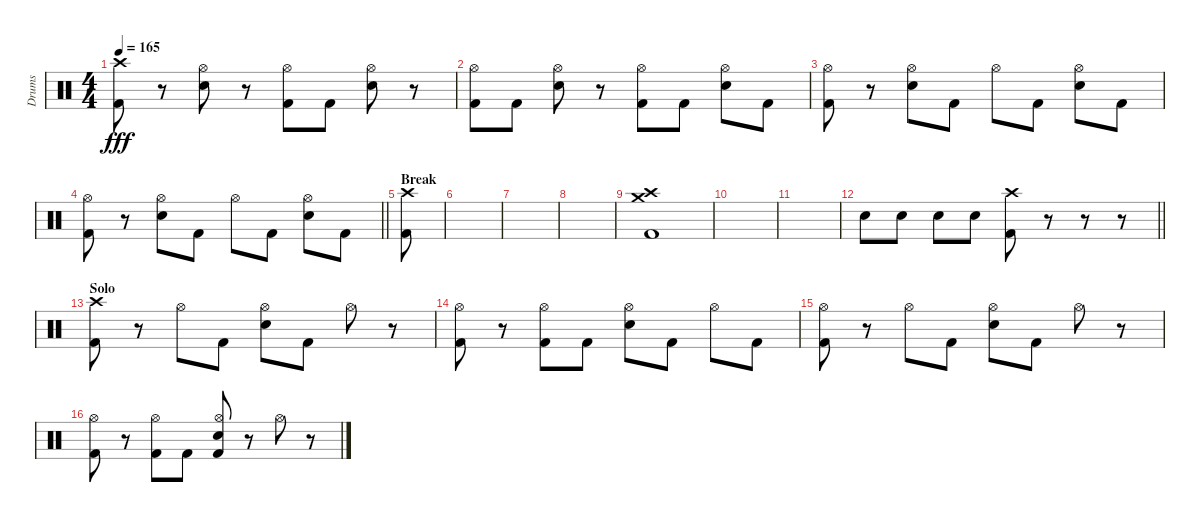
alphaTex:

\track ("Drums" "Drums") {instrument percussion}
\staff {score}
\articulation defaults
\ts (4 4)
\tempo 165
\clef neutral
\ks c
("Crash high (hit)" "Kick (hit) 2").8{dy fff} r.8 ("Hi-Hat (open)" "Electric Snare (hit)").8 r.8 ("Hi-Hat (open)" "Kick (hit) 2").8 "Kick (hit) 2".8 ("Hi-Hat (open)" "Electric Snare (hit)").8 r.8 |
("Hi-Hat (open)" "Kick (hit) 2").8 "Kick (hit) 2".8 ("Hi-Hat (open)" "Electric Snare (hit)").8 r.8 ("Hi-Hat (open)" "Kick (hit) 2").8 "Kick (hit) 2".8 ("Hi-Hat (open)" "Electric Snare (hit)").8 "Kick (hit) 2".8 |
("Hi-Hat (open)" "Kick (hit) 2").8 r.8 ("Hi-Hat (open)" "Electric Snare (hit)").8 "Kick (hit) 2".8 "Hi-Hat (open)".8 "Kick (hit) 2".8 ("Hi-Hat (open)" "Electric Snare (hit)").8 "Kick (hit) 2".8 |
\barLineRight lightlight
("Hi-Hat (open)" "Kick (hit) 2").8 r.8 ("Hi-Hat (open)" "Electric Snare (hit)").8 "Kick (hit) 2".8 "Hi-Hat (open)".8 "Kick (hit) 2".8 ("Hi-Hat (open)" "Electric Snare (hit)").8 "Kick (hit) 2".8 |
\section ("" "Break")
("Crash high (hit)" "Kick (hit) 2").8 |
|
|
|
("Crash high (hit)" "Crash medium (hit)" "Kick (hit) 2").1 |
|
|
\barLineRight lightlight "Electric Snare (hit)".8 "Electric Snare (hit)".8 "Electric Snare (hit)".8 "Electric Snare (hit)".8
("Crash high (hit)" "Kick (hit) 2").8 r.8 r.8 r.8 |
\section ("" "Solo")
("Crash high (hit)" "Kick (hit) 2").8 r.8 "Hi-Hat (open)".8 "Kick (hit) 2".8 ("Hi-Hat (open)" "Electric Snare (hit)").8 "Kick (hit) 2".8 "Hi-Hat (open)".8 r.8 |
("Hi-Hat (open)" "Kick (hit) 2").8 r.8 ("Hi-Hat (open)" "Kick (hit) 2").8 "Kick (hit) 2".8 ("Hi-Hat (open)" "Electric Snare (hit)").8 "Kick (hit) 2".8 "Hi-Hat (open)".8 "Kick (hit) 2".8 |
("Hi-Hat (open)" "Kick (hit) 2").8 r.8 "Hi-Hat (open)".8 "Kick (hit) 2".8 ("Hi-Hat (open)" "Electric Snare (hit)").8 "Kick (hit) 2".8 "Hi-Hat (open)".8 r.8 |
("Hi-Hat (open)" "Kick (hit) 2").8 r.8 ("Hi-Hat (open)" "Kick (hit) 2").8 "Kick (hit) 2".8 ("Hi-Hat (open)" "Electric Snare (hit)" "Kick (hit) 2").8 r.8 "Hi-Hat (open)".8 r.8
